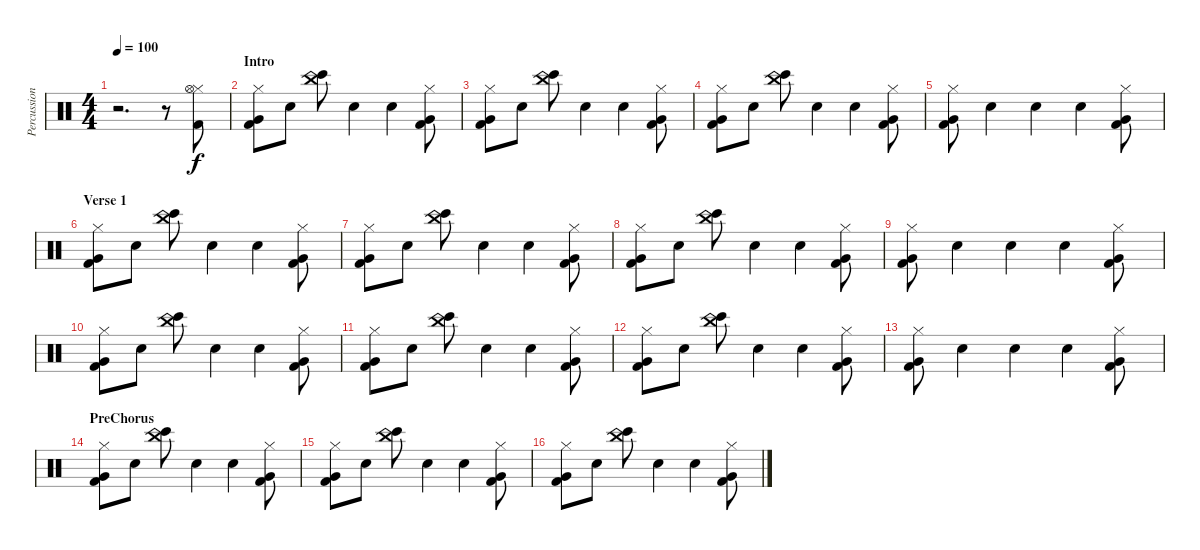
\track ("Percussion" "Percussion") {instrument percussion}
\staff {score}
\articulation defaults
\ts (4 4)
\tempo 100
\clef neutral
\ks c
r.2{d dy f} r.8 ("Hi-Hat (closed)" "Hi-Hat (open)" "Kick (hit) 2").8 |
\section ("" "Intro")
("Hi-Hat (closed)" "Very Low Tom (hit)" "Kick (hit) 2").8 "Hand Clap (hit)".8 ("Bongo High (hit)" "China (hit)").8 "Hand Clap (hit)".4 "Hand Clap (hit)".4 ("Hi-Hat (closed)" "Kick (hit) 2" "Very Low Tom (hit)").8 |
("Hi-Hat (closed)" "Very Low Tom (hit)" "Kick (hit) 2").8 "Hand Clap (hit)".8 ("Bongo High (hit)" "China (hit)").8 "Hand Clap (hit)".4 "Hand Clap (hit)".4 ("Hi-Hat (closed)" "Very Low Tom (hit)" "Kick (hit) 2").8 |
("Hi-Hat (closed)" "Kick (hit) 2" "Very Low Tom (hit)").8 "Hand Clap (hit)".8 ("Bongo High (hit)" "China (hit)").8 "Hand Clap (hit)".4 "Hand Clap (hit)".4 ("Hi-Hat (closed)" "Very Low Tom (hit)" "Kick (hit) 2").8 |
("Hi-Hat (closed)" "Very Low Tom (hit)" "Kick (hit) 2").8 "Hand Clap (hit)".4 "Hand Clap (hit)".4 "Hand Clap (hit)".4 ("Very Low Tom (hit)" "Kick (hit) 2" "Hi-Hat (closed)").8 |
\section ("" "Verse 1")
("Hi-Hat (closed)" "Very Low Tom (hit)" "Kick (hit) 2").8 "Hand Clap (hit)".8 ("Bongo High (hit)" "China (hit)").8 "Hand Clap (hit)".4 "Hand Clap (hit)".4 ("Hi-Hat (closed)" "Kick (hit) 2" "Very Low Tom (hit)").8 |
("Hi-Hat (closed)" "Very Low Tom (hit)" "Kick (hit) 2").8 "Hand Clap (hit)".8 ("Bongo High (hit)" "China (hit)").8 "Hand Clap (hit)".4 "Hand Clap (hit)".4 ("Hi-Hat (closed)" "Very Low Tom (hit)" "Kick (hit) 2").8 |
("Hi-Hat (closed)" "Kick (hit) 2" "Very Low Tom (hit)").8 "Hand Clap (hit)".8 ("Bongo High (hit)" "China (hit)").8 "Hand Clap (hit)".4 "Hand Clap (hit)".4 ("Hi-Hat (closed)" "Very Low Tom (hit)" "Kick (hit) 2").8 |
("Hi-Hat (closed)" "Very Low Tom (hit)" "Kick (hit) 2").8 "Hand Clap (hit)".4 "Hand Clap (hit)".4 "Hand Clap (hit)".4 ("Very Low Tom (hit)" "Kick (hit) 2" "Hi-Hat (closed)").8 |
("Hi-Hat (closed)" "Very Low Tom (hit)" "Kick (hit) 2").8 "Hand Clap (hit)".8 ("Bongo High (hit)" "China (hit)").8 "Hand Clap (hit)".4 "Hand Clap (hit)".4 ("Hi-Hat (closed)" "Kick (hit) 2" "Very Low Tom (hit)").8 |
("Hi-Hat (closed)" "Very Low Tom (hit)" "Kick (hit) 2").8 "Hand Clap (hit)".8 ("Bongo High (hit)" "China (hit)").8 "Hand Clap (hit)".4 "Hand Clap (hit)".4 ("Hi-Hat (closed)" "Very Low Tom (hit)" "Kick (hit) 2").8 |
("Hi-Hat (closed)" "Kick (hit) 2" "Very Low Tom (hit)").8 "Hand Clap (hit)".8 ("Bongo High (hit)" "China (hit)").8 "Hand Clap (hit)".4 "Hand Clap (hit)".4 ("Hi-Hat (closed)" "Very Low Tom (hit)" "Kick (hit) 2").8 |
("Hi-Hat (closed)" "Very Low Tom (hit)" "Kick (hit) 2").8 "Hand Clap (hit)".4 "Hand Clap (hit)".4 "Hand Clap (hit)".4 ("Very Low Tom (hit)" "Kick (hit) 2" "Hi-Hat (closed)").8 |
\section ("" "PreChorus")
("Hi-Hat (closed)" "Very Low Tom (hit)" "Kick (hit) 2").8 "Hand Clap (hit)".8 ("Bongo High (hit)" "China (hit)").8 "Hand Clap (hit)".4 "Hand Clap (hit)".4 ("Hi-Hat (closed)" "Kick (hit) 2" "Very Low Tom (hit)").8 |
("Hi-Hat (closed)" "Very Low Tom (hit)" "Kick (hit) 2").8 "Hand Clap (hit)".8 ("Bongo High (hit)" "China (hit)").8 "Hand Clap (hit)".4 "Hand Clap (hit)".4 ("Hi-Hat (closed)" "Very Low Tom (hit)" "Kick (hit) 2").8 |
("Hi-Hat (closed)" "Kick (hit) 2" "Very Low Tom (hit)").8 "Hand Clap (hit)".8 ("Bongo High (hit)" "China (hit)").8 "Hand Clap (hit)".4 "Hand Clap (hit)".4 ("Hi-Hat (closed)" "Very Low Tom (hit)" "Kick (hit) 2").8
